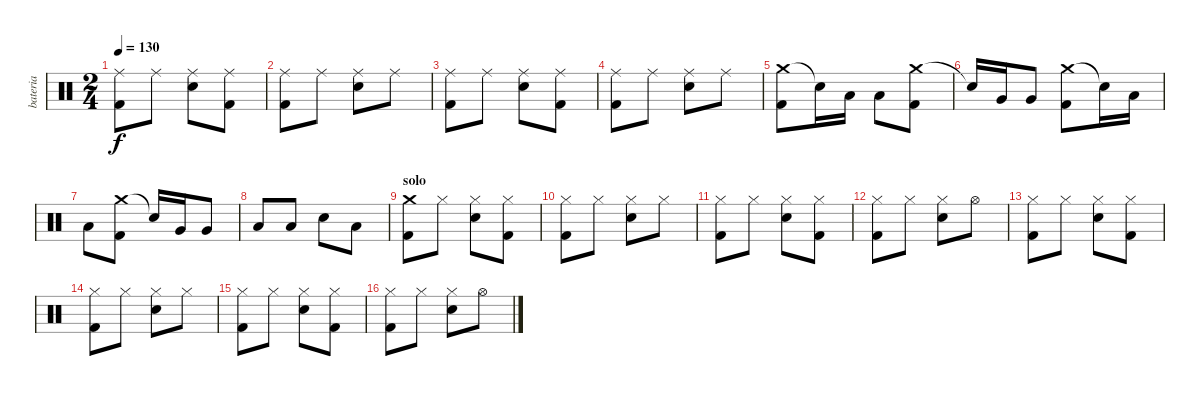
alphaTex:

\track ("bateria" "bateria") {instrument percussion}
\staff {score}
\articulation defaults
\ts (2 4)
\tempo 130
\clef neutral
\ks c
("Ride (middle)" "Kick (hit) 2").8{dy f} "Ride (middle)".8 ("Ride (middle)" "Electric Snare (hit)").8 ("Ride (middle)" "Kick (hit) 2").8 |
("Ride (middle)" "Kick (hit) 2").8 "Ride (middle)".8 ("Ride (middle)" "Electric Snare (hit)").8 "Ride (middle)".8 |
("Ride (middle)" "Kick (hit) 2").8 "Ride (middle)".8 ("Ride (middle)" "Electric Snare (hit)").8 ("Ride (middle)" "Kick (hit) 2").8 |
("Ride (middle)" "Kick (hit) 2").8 "Ride (middle)".8 ("Ride (middle)" "Electric Snare (hit)").8 "Ride (middle)".8 |
("Crash medium (hit)" "Kick (hit) 2").8 "Snare (hit)"{t}.16 "Low Tom (hit)".16 "Low Tom (hit)".8 ("Crash medium (hit)" "Kick (hit) 2").8 |
"Snare (hit)"{t}.16 "Very Low Tom (hit)".16 "Very Low Tom (hit)".8 ("Crash medium (hit)" "Kick (hit) 2").8 "Snare (hit)"{t}.16 "Low Tom (hit)".16 |
"Low Tom (hit)".8 ("Crash medium (hit)" "Kick (hit) 2").8 "Snare (hit)"{t}.16 "Very Low Tom (hit)".16 "Very Low Tom (hit)".8 |
"Low Floor Tom (hit)".8 "Low Floor Tom (hit)".8 "Electric Snare (hit)".8 "Low Floor Tom (hit)".8 |
\section ("" "solo")
("Crash medium (hit)" "Kick (hit) 2").8 "Hi-Hat (closed)".8 ("Hi-Hat (closed)" "Electric Snare (hit)").8 ("Hi-Hat (closed)" "Kick (hit) 2").8 |
("Hi-Hat (closed)" "Kick (hit) 2").8 "Hi-Hat (closed)".8 ("Hi-Hat (closed)" "Electric Snare (hit)").8 "Hi-Hat (closed)".8 |
("Hi-Hat (closed)" "Kick (hit) 2").8 "Hi-Hat (closed)".8 ("Hi-Hat (closed)" "Electric Snare (hit)").8 ("Hi-Hat (closed)" "Kick (hit) 2").8 |
("Hi-Hat (closed)" "Kick (hit) 2").8 "Hi-Hat (closed)".8 ("Hi-Hat (closed)" "Electric Snare (hit)").8 "Hi-Hat (open)".8 |
("Hi-Hat (closed)" "Kick (hit) 2").8 "Hi-Hat (closed)".8 ("Hi-Hat (closed)" "Electric Snare (hit)").8 ("Hi-Hat (closed)" "Kick (hit) 2").8 |
("Hi-Hat (closed)" "Kick (hit) 2").8 "Hi-Hat (closed)".8 ("Hi-Hat (closed)" "Electric Snare (hit)").8 "Hi-Hat (closed)".8 |
("Hi-Hat (closed)" "Kick (hit) 2").8 "Hi-Hat (closed)".8 ("Hi-Hat (closed)" "Electric Snare (hit)").8 ("Hi-Hat (closed)" "Kick (hit) 2").8 |
("Hi-Hat (closed)" "Kick (hit) 2").8 "Hi-Hat (closed)".8 ("Hi-Hat (closed)" "Electric Snare (hit)").8 "Hi-Hat (open)".8
